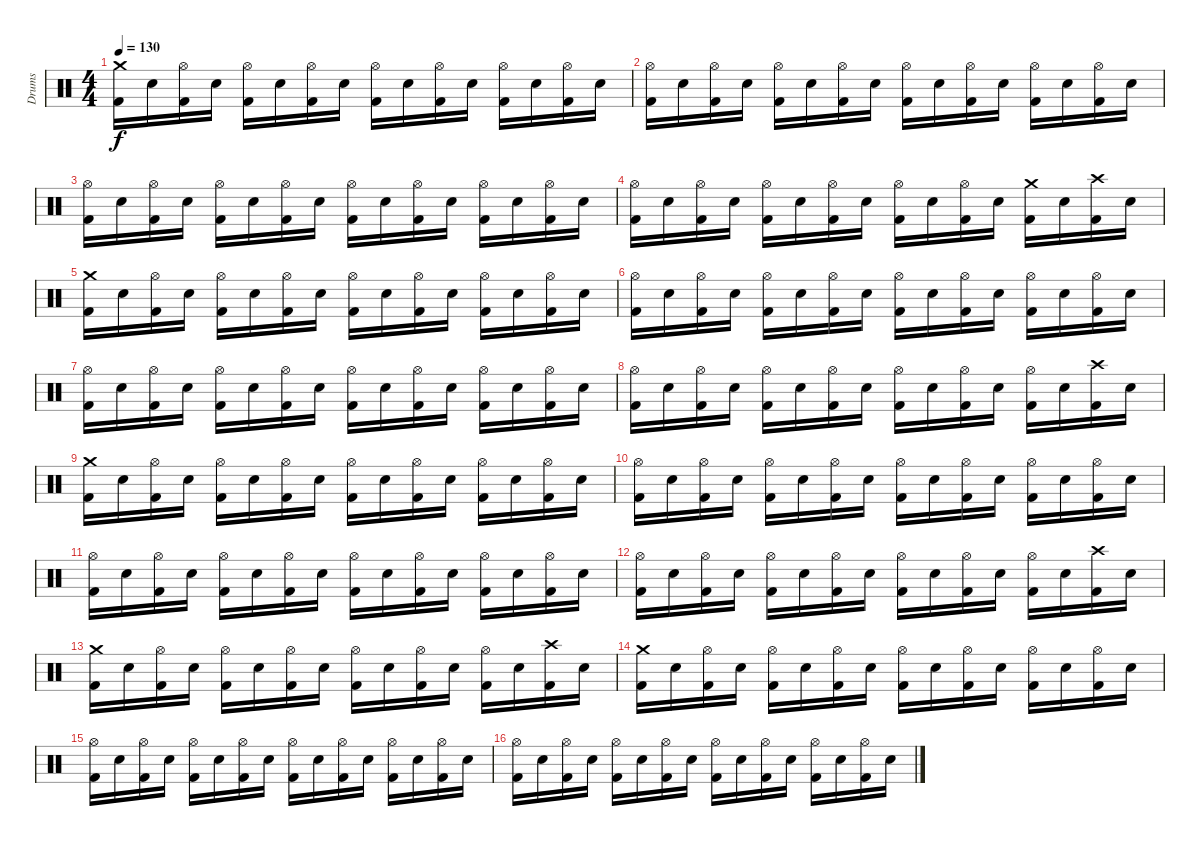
\track ("Drums" "Drums") {instrument percussion}
\staff {score}
\articulation defaults
\ts (4 4)
\tempo 130
\clef neutral
\ks c
("Kick (hit) 2" "Crash medium (hit)").16{dy f} "Electric Snare (hit)".16 ("Kick (hit) 2" "Hi-Hat (open)").16 "Electric Snare (hit)".16 ("Kick (hit) 2" "Hi-Hat (open)").16 "Electric Snare (hit)".16 ("Kick (hit) 2" "Hi-Hat (open)").16 "Electric Snare (hit)".16 ("Kick (hit) 2" "Hi-Hat (open)").16 "Electric Snare (hit)".16 ("Kick (hit) 2" "Hi-Hat (open)").16 "Electric Snare (hit)".16 ("Kick (hit) 2" "Hi-Hat (open)").16 "Electric Snare (hit)".16 ("Kick (hit) 2" "Hi-Hat (open)").16 "Electric Snare (hit)".16 |
("Kick (hit) 2" "Hi-Hat (open)").16 "Electric Snare (hit)".16 ("Kick (hit) 2" "Hi-Hat (open)").16 "Electric Snare (hit)".16 ("Kick (hit) 2" "Hi-Hat (open)").16 "Electric Snare (hit)".16 ("Kick (hit) 2" "Hi-Hat (open)").16 "Electric Snare (hit)".16 ("Kick (hit) 2" "Hi-Hat (open)").16 "Electric Snare (hit)".16 ("Kick (hit) 2" "Hi-Hat (open)").16 "Electric Snare (hit)".16 ("Kick (hit) 2" "Hi-Hat (open)").16 "Electric Snare (hit)".16 ("Kick (hit) 2" "Hi-Hat (open)").16 "Electric Snare (hit)".16 |
("Kick (hit) 2" "Hi-Hat (open)").16 "Electric Snare (hit)".16 ("Kick (hit) 2" "Hi-Hat (open)").16 "Electric Snare (hit)".16 ("Kick (hit) 2" "Hi-Hat (open)").16 "Electric Snare (hit)".16 ("Kick (hit) 2" "Hi-Hat (open)").16 "Electric Snare (hit)".16 ("Kick (hit) 2" "Hi-Hat (open)").16 "Electric Snare (hit)".16 ("Kick (hit) 2" "Hi-Hat (open)").16 "Electric Snare (hit)".16 ("Kick (hit) 2" "Hi-Hat (open)").16 "Electric Snare (hit)".16 ("Kick (hit) 2" "Hi-Hat (open)").16 "Electric Snare (hit)".16 |
("Kick (hit) 2" "Hi-Hat (open)").16 "Electric Snare (hit)".16 ("Kick (hit) 2" "Hi-Hat (open)").16 "Electric Snare (hit)".16 ("Kick (hit) 2" "Hi-Hat (open)").16 "Electric Snare (hit)".16 ("Kick (hit) 2" "Hi-Hat (open)").16 "Electric Snare (hit)".16 ("Kick (hit) 2" "Hi-Hat (open)").16 "Electric Snare (hit)".16 ("Kick (hit) 2" "Hi-Hat (open)").16 "Electric Snare (hit)".16 ("Kick (hit) 2" "Crash medium (hit)").16 "Electric Snare (hit)".16 ("Kick (hit) 2" "Crash high (hit)").16 "Electric Snare (hit)".16 |
("Kick (hit) 2" "Crash medium (hit)").16 "Electric Snare (hit)".16 ("Kick (hit) 2" "Hi-Hat (open)").16 "Electric Snare (hit)".16 ("Kick (hit) 2" "Hi-Hat (open)").16 "Electric Snare (hit)".16 ("Kick (hit) 2" "Hi-Hat (open)").16 "Electric Snare (hit)".16 ("Kick (hit) 2" "Hi-Hat (open)").16 "Electric Snare (hit)".16 ("Kick (hit) 2" "Hi-Hat (open)").16 "Electric Snare (hit)".16 ("Kick (hit) 2" "Hi-Hat (open)").16 "Electric Snare (hit)".16 ("Kick (hit) 2" "Hi-Hat (open)").16 "Electric Snare (hit)".16 |
("Kick (hit) 2" "Hi-Hat (open)").16 "Electric Snare (hit)".16 ("Kick (hit) 2" "Hi-Hat (open)").16 "Electric Snare (hit)".16 ("Kick (hit) 2" "Hi-Hat (open)").16 "Electric Snare (hit)".16 ("Kick (hit) 2" "Hi-Hat (open)").16 "Electric Snare (hit)".16 ("Kick (hit) 2" "Hi-Hat (open)").16 "Electric Snare (hit)".16 ("Kick (hit) 2" "Hi-Hat (open)").16 "Electric Snare (hit)".16 ("Kick (hit) 2" "Hi-Hat (open)").16 "Electric Snare (hit)".16 ("Kick (hit) 2" "Hi-Hat (open)").16 "Electric Snare (hit)".16 |
("Kick (hit) 2" "Hi-Hat (open)").16 "Electric Snare (hit)".16 ("Kick (hit) 2" "Hi-Hat (open)").16 "Electric Snare (hit)".16 ("Kick (hit) 2" "Hi-Hat (open)").16 "Electric Snare (hit)".16 ("Kick (hit) 2" "Hi-Hat (open)").16 "Electric Snare (hit)".16 ("Kick (hit) 2" "Hi-Hat (open)").16 "Electric Snare (hit)".16 ("Kick (hit) 2" "Hi-Hat (open)").16 "Electric Snare (hit)".16 ("Kick (hit) 2" "Hi-Hat (open)").16 "Electric Snare (hit)".16 ("Kick (hit) 2" "Hi-Hat (open)").16 "Electric Snare (hit)".16 |
("Kick (hit) 2" "Hi-Hat (open)").16 "Electric Snare (hit)".16 ("Kick (hit) 2" "Hi-Hat (open)").16 "Electric Snare (hit)".16 ("Kick (hit) 2" "Hi-Hat (open)").16 "Electric Snare (hit)".16 ("Kick (hit) 2" "Hi-Hat (open)").16 "Electric Snare (hit)".16 ("Kick (hit) 2" "Hi-Hat (open)").16 "Electric Snare (hit)".16 ("Kick (hit) 2" "Hi-Hat (open)").16 "Electric Snare (hit)".16 ("Kick (hit) 2" "Hi-Hat (open)").16 "Electric Snare (hit)".16 ("Kick (hit) 2" "Crash high (hit)").16 "Electric Snare (hit)".16 |
("Kick (hit) 2" "Crash medium (hit)").16 "Electric Snare (hit)".16 ("Kick (hit) 2" "Hi-Hat (open)").16 "Electric Snare (hit)".16 ("Kick (hit) 2" "Hi-Hat (open)").16 "Electric Snare (hit)".16 ("Kick (hit) 2" "Hi-Hat (open)").16 "Electric Snare (hit)".16 ("Kick (hit) 2" "Hi-Hat (open)").16 "Electric Snare (hit)".16 ("Kick (hit) 2" "Hi-Hat (open)").16 "Electric Snare (hit)".16 ("Kick (hit) 2" "Hi-Hat (open)").16 "Electric Snare (hit)".16 ("Kick (hit) 2" "Hi-Hat (open)").16 "Electric Snare (hit)".16 |
("Kick (hit) 2" "Hi-Hat (open)").16 "Electric Snare (hit)".16 ("Kick (hit) 2" "Hi-Hat (open)").16 "Electric Snare (hit)".16 ("Kick (hit) 2" "Hi-Hat (open)").16 "Electric Snare (hit)".16 ("Kick (hit) 2" "Hi-Hat (open)").16 "Electric Snare (hit)".16 ("Kick (hit) 2" "Hi-Hat (open)").16 "Electric Snare (hit)".16 ("Kick (hit) 2" "Hi-Hat (open)").16 "Electric Snare (hit)".16 ("Kick (hit) 2" "Hi-Hat (open)").16 "Electric Snare (hit)".16 ("Kick (hit) 2" "Hi-Hat (open)").16 "Electric Snare (hit)".16 |
("Kick (hit) 2" "Hi-Hat (open)").16 "Electric Snare (hit)".16 ("Kick (hit) 2" "Hi-Hat (open)").16 "Electric Snare (hit)".16 ("Kick (hit) 2" "Hi-Hat (open)").16 "Electric Snare (hit)".16 ("Kick (hit) 2" "Hi-Hat (open)").16 "Electric Snare (hit)".16 ("Kick (hit) 2" "Hi-Hat (open)").16 "Electric Snare (hit)".16 ("Kick (hit) 2" "Hi-Hat (open)").16 "Electric Snare (hit)".16 ("Kick (hit) 2" "Hi-Hat (open)").16 "Electric Snare (hit)".16 ("Kick (hit) 2" "Hi-Hat (open)").16 "Electric Snare (hit)".16 |
("Kick (hit) 2" "Hi-Hat (open)").16 "Electric Snare (hit)".16 ("Kick (hit) 2" "Hi-Hat (open)").16 "Electric Snare (hit)".16 ("Kick (hit) 2" "Hi-Hat (open)").16 "Electric Snare (hit)".16 ("Kick (hit) 2" "Hi-Hat (open)").16 "Electric Snare (hit)".16 ("Kick (hit) 2" "Hi-Hat (open)").16 "Electric Snare (hit)".16 ("Kick (hit) 2" "Hi-Hat (open)").16 "Electric Snare (hit)".16 ("Kick (hit) 2" "Hi-Hat (open)").16 "Electric Snare (hit)".16 ("Kick (hit) 2" "Crash high (hit)").16 "Electric Snare (hit)".16 |
("Kick (hit) 2" "Crash medium (hit)").16 "Electric Snare (hit)".16 ("Kick (hit) 2" "Hi-Hat (open)").16 "Electric Snare (hit)".16 ("Kick (hit) 2" "Hi-Hat (open)").16 "Electric Snare (hit)".16 ("Kick (hit) 2" "Hi-Hat (open)").16 "Electric Snare (hit)".16 ("Kick (hit) 2" "Hi-Hat (open)").16 "Electric Snare (hit)".16 ("Kick (hit) 2" "Hi-Hat (open)").16 "Electric Snare (hit)".16 ("Kick (hit) 2" "Hi-Hat (open)").16 "Electric Snare (hit)".16 ("Kick (hit) 2" "Crash high (hit)").16 "Electric Snare (hit)".16 |
("Kick (hit) 2" "Crash medium (hit)").16 "Electric Snare (hit)".16 ("Kick (hit) 2" "Hi-Hat (open)").16 "Electric Snare (hit)".16 ("Kick (hit) 2" "Hi-Hat (open)").16 "Electric Snare (hit)".16 ("Kick (hit) 2" "Hi-Hat (open)").16 "Electric Snare (hit)".16 ("Kick (hit) 2" "Hi-Hat (open)").16 "Electric Snare (hit)".16 ("Kick (hit) 2" "Hi-Hat (open)").16 "Electric Snare (hit)".16 ("Kick (hit) 2" "Hi-Hat (open)").16 "Electric Snare (hit)".16 ("Kick (hit) 2" "Hi-Hat (open)").16 "Electric Snare (hit)".16 |
("Kick (hit) 2" "Hi-Hat (open)").16 "Electric Snare (hit)".16 ("Kick (hit) 2" "Hi-Hat (open)").16 "Electric Snare (hit)".16 ("Kick (hit) 2" "Hi-Hat (open)").16 "Electric Snare (hit)".16 ("Kick (hit) 2" "Hi-Hat (open)").16 "Electric Snare (hit)".16 ("Kick (hit) 2" "Hi-Hat (open)").16 "Electric Snare (hit)".16 ("Kick (hit) 2" "Hi-Hat (open)").16 "Electric Snare (hit)".16 ("Kick (hit) 2" "Hi-Hat (open)").16 "Electric Snare (hit)".16 ("Kick (hit) 2" "Hi-Hat (open)").16 "Electric Snare (hit)".16 |
("Kick (hit) 2" "Hi-Hat (open)").16 "Electric Snare (hit)".16 ("Kick (hit) 2" "Hi-Hat (open)").16 "Electric Snare (hit)".16 ("Kick (hit) 2" "Hi-Hat (open)").16 "Electric Snare (hit)".16 ("Kick (hit) 2" "Hi-Hat (open)").16 "Electric Snare (hit)".16 ("Kick (hit) 2" "Hi-Hat (open)").16 "Electric Snare (hit)".16 ("Kick (hit) 2" "Hi-Hat (open)").16 "Electric Snare (hit)".16 ("Kick (hit) 2" "Hi-Hat (open)").16 "Electric Snare (hit)".16 ("Kick (hit) 2" "Hi-Hat (open)").16 "Electric Snare (hit)".16
